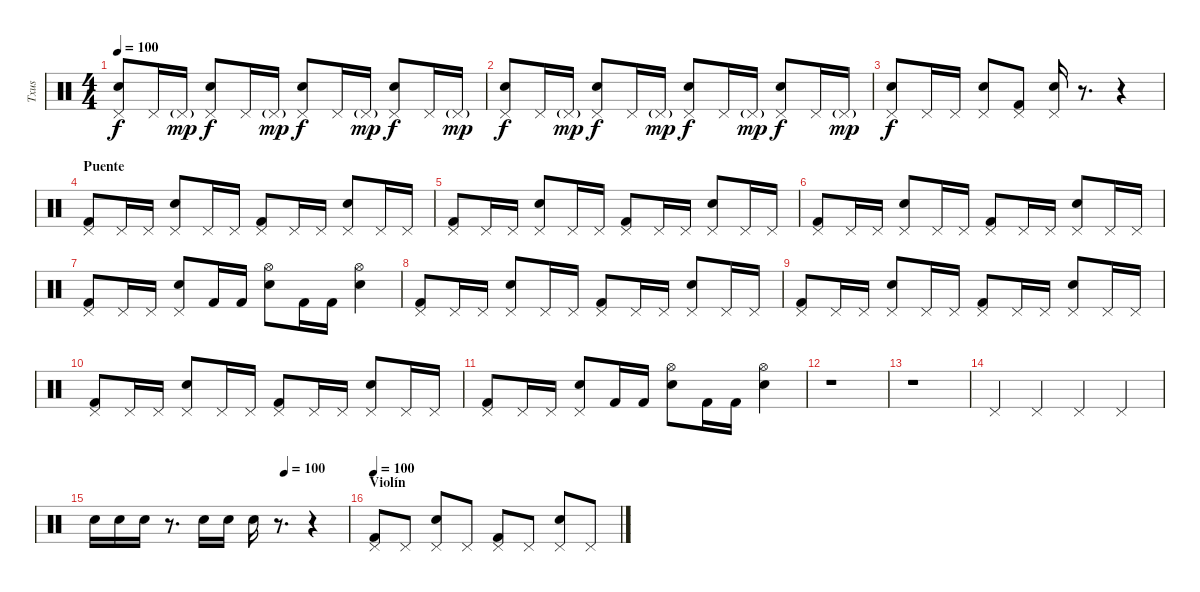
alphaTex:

\track ("Txus" "Txus") {instrument percussion}
\staff {score}
\articulation defaults
\ts (4 4)
\tempo 100
\clef neutral
\ks c
("Pedal Hi-Hat (hit)" "Snare (hit) 2").8{dy f} "Pedal Hi-Hat (hit)".16 "Pedal Hi-Hat (hit)"{g}.16{dy mp} ("Pedal Hi-Hat (hit)" "Snare (hit) 2").8{dy f} "Pedal Hi-Hat (hit)".16 "Pedal Hi-Hat (hit)"{g}.16{dy mp} ("Pedal Hi-Hat (hit)" "Snare (hit) 2").8{dy f} "Pedal Hi-Hat (hit)".16 "Pedal Hi-Hat (hit)"{g}.16{dy mp} ("Pedal Hi-Hat (hit)" "Snare (hit) 2").8{dy f} "Pedal Hi-Hat (hit)".16 "Pedal Hi-Hat (hit)"{g}.16{dy mp} |
("Pedal Hi-Hat (hit)" "Snare (hit) 2").8{dy f} "Pedal Hi-Hat (hit)".16 "Pedal Hi-Hat (hit)"{g}.16{dy mp} ("Pedal Hi-Hat (hit)" "Snare (hit) 2").8{dy f} "Pedal Hi-Hat (hit)".16 "Pedal Hi-Hat (hit)"{g}.16{dy mp} ("Pedal Hi-Hat (hit)" "Snare (hit) 2").8{dy f} "Pedal Hi-Hat (hit)".16 "Pedal Hi-Hat (hit)"{g}.16{dy mp} ("Pedal Hi-Hat (hit)" "Snare (hit) 2").8{dy f} "Pedal Hi-Hat (hit)".16 "Pedal Hi-Hat (hit)"{g}.16{dy mp} |
("Pedal Hi-Hat (hit)" "Snare (hit) 2").8{dy f} "Pedal Hi-Hat (hit)".16 "Pedal Hi-Hat (hit)".16 ("Pedal Hi-Hat (hit)" "Snare (hit) 2").8 ("Pedal Hi-Hat (hit)" "Kick (hit) 2").8 ("Pedal Hi-Hat (hit)" "Snare (hit) 2").16 r.8{d} r.4 |
\section ("" "Puente")
("Pedal Hi-Hat (hit)" "Kick (hit) 2").8 "Pedal Hi-Hat (hit)".16 "Pedal Hi-Hat (hit)".16 ("Pedal Hi-Hat (hit)" "Snare (hit) 2").8 "Pedal Hi-Hat (hit)".16 "Pedal Hi-Hat (hit)".16 ("Pedal Hi-Hat (hit)" "Kick (hit) 2").8 "Pedal Hi-Hat (hit)".16 "Pedal Hi-Hat (hit)".16 ("Pedal Hi-Hat (hit)" "Snare (hit) 2").8 "Pedal Hi-Hat (hit)".16 "Pedal Hi-Hat (hit)".16 |
("Pedal Hi-Hat (hit)" "Kick (hit) 2").8 "Pedal Hi-Hat (hit)".16 "Pedal Hi-Hat (hit)".16 ("Pedal Hi-Hat (hit)" "Snare (hit) 2").8 "Pedal Hi-Hat (hit)".16 "Pedal Hi-Hat (hit)".16 ("Pedal Hi-Hat (hit)" "Kick (hit) 2").8 "Pedal Hi-Hat (hit)".16 "Pedal Hi-Hat (hit)".16 ("Pedal Hi-Hat (hit)" "Snare (hit) 2").8 "Pedal Hi-Hat (hit)".16 "Pedal Hi-Hat (hit)".16 |
("Pedal Hi-Hat (hit)" "Kick (hit) 2").8 "Pedal Hi-Hat (hit)".16 "Pedal Hi-Hat (hit)".16 ("Pedal Hi-Hat (hit)" "Snare (hit) 2").8 "Pedal Hi-Hat (hit)".16 "Pedal Hi-Hat (hit)".16 ("Pedal Hi-Hat (hit)" "Kick (hit) 2").8 "Pedal Hi-Hat (hit)".16 "Pedal Hi-Hat (hit)".16 ("Pedal Hi-Hat (hit)" "Snare (hit) 2").8 "Pedal Hi-Hat (hit)".16 "Pedal Hi-Hat (hit)".16 |
("Pedal Hi-Hat (hit)" "Kick (hit) 2").8 "Pedal Hi-Hat (hit)".16 "Pedal Hi-Hat (hit)".16 ("Pedal Hi-Hat (hit)" "Snare (hit) 2").8 "Kick (hit) 2".16 "Kick (hit) 2".16 ("Hi-Hat (open)" "Snare (hit) 2").8 "Kick (hit) 2".16 "Kick (hit) 2".16 ("Hi-Hat (open)" "Snare (hit) 2").4 |
("Pedal Hi-Hat (hit)" "Kick (hit) 2").8 "Pedal Hi-Hat (hit)".16 "Pedal Hi-Hat (hit)".16 ("Pedal Hi-Hat (hit)" "Snare (hit) 2").8 "Pedal Hi-Hat (hit)".16 "Pedal Hi-Hat (hit)".16 ("Pedal Hi-Hat (hit)" "Kick (hit) 2").8 "Pedal Hi-Hat (hit)".16 "Pedal Hi-Hat (hit)".16 ("Pedal Hi-Hat (hit)" "Snare (hit) 2").8 "Pedal Hi-Hat (hit)".16 "Pedal Hi-Hat (hit)".16 |
("Pedal Hi-Hat (hit)" "Kick (hit) 2").8 "Pedal Hi-Hat (hit)".16 "Pedal Hi-Hat (hit)".16 ("Pedal Hi-Hat (hit)" "Snare (hit) 2").8 "Pedal Hi-Hat (hit)".16 "Pedal Hi-Hat (hit)".16 ("Pedal Hi-Hat (hit)" "Kick (hit) 2").8 "Pedal Hi-Hat (hit)".16 "Pedal Hi-Hat (hit)".16 ("Pedal Hi-Hat (hit)" "Snare (hit) 2").8 "Pedal Hi-Hat (hit)".16 "Pedal Hi-Hat (hit)".16 |
("Pedal Hi-Hat (hit)" "Kick (hit) 2").8 "Pedal Hi-Hat (hit)".16 "Pedal Hi-Hat (hit)".16 ("Pedal Hi-Hat (hit)" "Snare (hit) 2").8 "Pedal Hi-Hat (hit)".16 "Pedal Hi-Hat (hit)".16 ("Pedal Hi-Hat (hit)" "Kick (hit) 2").8 "Pedal Hi-Hat (hit)".16 "Pedal Hi-Hat (hit)".16 ("Pedal Hi-Hat (hit)" "Snare (hit) 2").8 "Pedal Hi-Hat (hit)".16 "Pedal Hi-Hat (hit)".16 |
("Pedal Hi-Hat (hit)" "Kick (hit) 2").8 "Pedal Hi-Hat (hit)".16 "Pedal Hi-Hat (hit)".16 ("Pedal Hi-Hat (hit)" "Snare (hit) 2").8 "Kick (hit) 2".16 "Kick (hit) 2".16 ("Hi-Hat (open)" "Snare (hit) 2").8 "Kick (hit) 2".16 "Kick (hit) 2".16 ("Hi-Hat (open)" "Snare (hit) 2").4 |
r.1 |
r.1 |
"Pedal Hi-Hat (hit)".4 "Pedal Hi-Hat (hit)".4 "Pedal Hi-Hat (hit)".4 "Pedal Hi-Hat (hit)".4 |
\tempo (100 0.75)
"Snare (hit) 2".16 "Snare (hit) 2".16 "Snare (hit) 2".16 r.8{d} "Snare (hit) 2".16 "Snare (hit) 2".16 "Snare (hit) 2".16 r.8{d} r.4 |
\section ("" "Violín")
\tempo 100
("Pedal Hi-Hat (hit)" "Kick (hit) 2").8 "Pedal Hi-Hat (hit)".8 ("Pedal Hi-Hat (hit)" "Snare (hit) 2").8 "Pedal Hi-Hat (hit)".8 ("Pedal Hi-Hat (hit)" "Kick (hit) 2").8 "Pedal Hi-Hat (hit)".8 ("Pedal Hi-Hat (hit)" "Snare (hit) 2").8 "Pedal Hi-Hat (hit)".8
